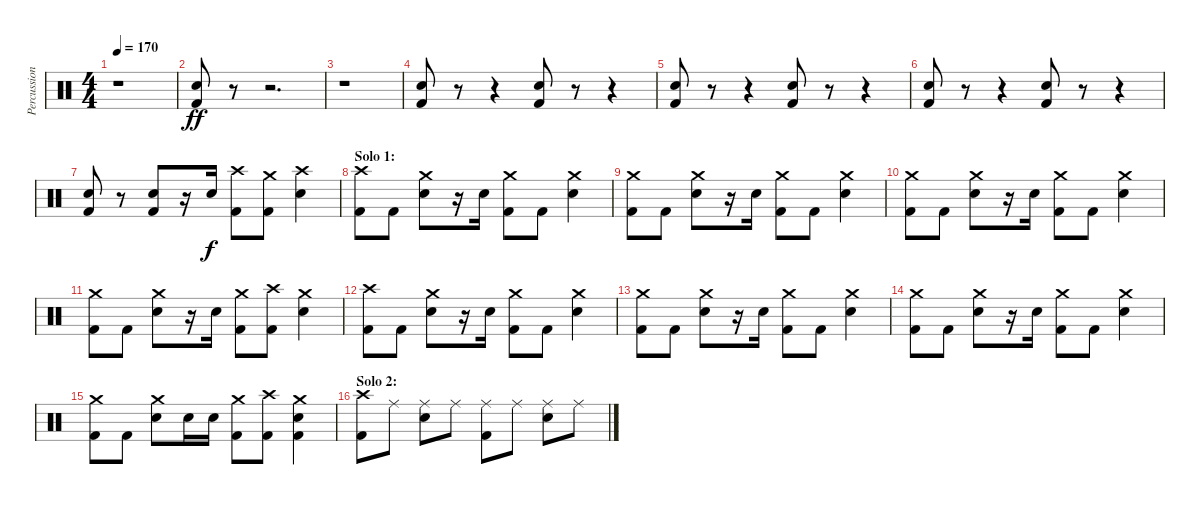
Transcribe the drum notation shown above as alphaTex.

\track ("Percussion" "Percussion") {instrument percussion}
\staff {score}
\articulation defaults
\ts (4 4)
\tempo 170
\clef neutral
\ks c
r.1{dy ff} |
("Snare (hit) 2" "Kick (hit) 2").8 r.8 r.2{d} |
r.1 |
("Snare (hit) 2" "Kick (hit) 2").8 r.8 r.4 ("Snare (hit) 2" "Kick (hit) 2").8 r.8 r.4 |
("Snare (hit) 2" "Kick (hit) 2").8 r.8 r.4 ("Snare (hit) 2" "Kick (hit) 2").8 r.8 r.4 |
("Snare (hit) 2" "Kick (hit) 2").8 r.8 r.4 ("Snare (hit) 2" "Kick (hit) 2").8 r.8 r.4 |
("Snare (hit) 2" "Kick (hit) 2").8 r.8 ("Snare (hit) 2" "Kick (hit) 2").8 r.16 "Snare (hit) 2".16{dy f} ("Crash high (hit)" "Kick (hit) 2").8 ("Crash medium (hit)" "Kick (hit) 2").8 ("Crash high (hit)" "Snare (hit) 2").4 |
\section ("" "Solo 1:")
("Crash high (hit)" "Kick (hit) 2").8 "Kick (hit) 2".8 ("Crash medium (hit)" "Snare (hit) 2").8 r.16 "Snare (hit) 2".16 ("Crash medium (hit)" "Kick (hit) 2").8 "Kick (hit) 2".8 ("Crash medium (hit)" "Snare (hit) 2").4 |
("Crash medium (hit)" "Kick (hit) 2").8 "Kick (hit) 2".8 ("Crash medium (hit)" "Snare (hit) 2").8 r.16 "Snare (hit) 2".16 ("Crash medium (hit)" "Kick (hit) 2").8 "Kick (hit) 2".8 ("Crash medium (hit)" "Snare (hit) 2").4 |
("Crash medium (hit)" "Kick (hit) 2").8 "Kick (hit) 2".8 ("Crash medium (hit)" "Snare (hit) 2").8 r.16 "Snare (hit) 2".16 ("Crash medium (hit)" "Kick (hit) 2").8 "Kick (hit) 2".8 ("Crash medium (hit)" "Snare (hit) 2").4 |
("Crash medium (hit)" "Kick (hit) 2").8 "Kick (hit) 2".8 ("Crash medium (hit)" "Snare (hit) 2").8 r.16 "Snare (hit) 2".16 ("Crash medium (hit)" "Kick (hit) 2").8 ("Crash high (hit)" "Kick (hit) 2").8 ("Crash medium (hit)" "Snare (hit) 2").4 |
("Crash high (hit)" "Kick (hit) 2").8 "Kick (hit) 2".8 ("Crash medium (hit)" "Snare (hit) 2").8 r.16 "Snare (hit) 2".16 ("Crash medium (hit)" "Kick (hit) 2").8 "Kick (hit) 2".8 ("Crash medium (hit)" "Snare (hit) 2").4 |
("Crash medium (hit)" "Kick (hit) 2").8 "Kick (hit) 2".8 ("Crash medium (hit)" "Snare (hit) 2").8 r.16 "Snare (hit) 2".16 ("Crash medium (hit)" "Kick (hit) 2").8 "Kick (hit) 2".8 ("Crash medium (hit)" "Snare (hit) 2").4 |
("Crash medium (hit)" "Kick (hit) 2").8 "Kick (hit) 2".8 ("Crash medium (hit)" "Snare (hit) 2").8 r.16 "Snare (hit) 2".16 ("Crash medium (hit)" "Kick (hit) 2").8 "Kick (hit) 2".8 ("Crash medium (hit)" "Snare (hit) 2").4 |
("Crash medium (hit)" "Kick (hit) 2").8 "Kick (hit) 2".8 ("Crash medium (hit)" "Snare (hit) 2").8 "Snare (hit) 2".16 "Snare (hit) 2".16 ("Crash medium (hit)" "Kick (hit) 2").8 ("Crash high (hit)" "Kick (hit) 2").8 ("Crash medium (hit)" "Snare (hit) 2" "Kick (hit) 2").4 |
\section ("" "Solo 2:")
("Crash high (hit)" "Kick (hit) 2").8 "Ride (middle)".8 ("Ride (middle)" "Snare (hit) 2").8 "Ride (middle)".8 ("Ride (middle)" "Kick (hit) 2").8 "Ride (middle)".8 ("Ride (middle)" "Snare (hit) 2").8 "Ride (middle)".8
